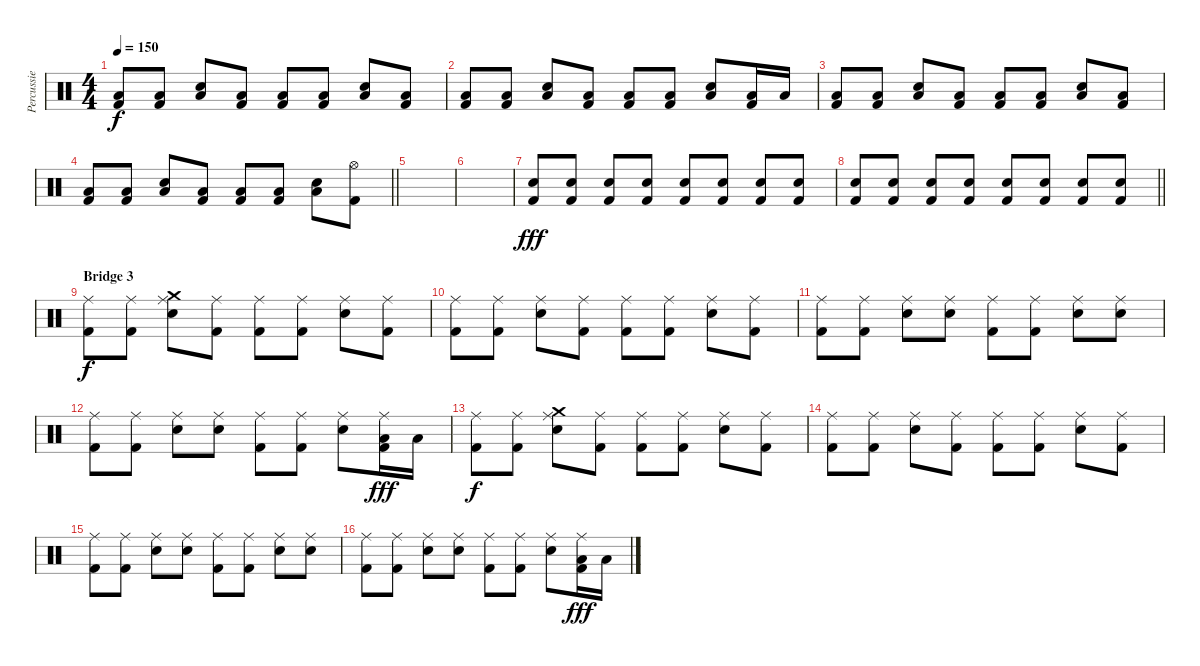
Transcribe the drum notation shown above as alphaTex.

\track ("Percussie" "Percussie") {instrument percussion}
\staff {score}
\articulation defaults
\ts (4 4)
\tempo 150
\clef neutral
\ks c
("Low Floor Tom (hit)" "Kick (hit) 2").8{dy f} ("Low Floor Tom (hit)" "Kick (hit) 2").8 ("Snare (hit) 2" "Low Floor Tom (hit)").8 ("Low Floor Tom (hit)" "Kick (hit) 2").8 ("Low Floor Tom (hit)" "Kick (hit) 2").8 ("Low Floor Tom (hit)" "Kick (hit) 2").8 ("Snare (hit) 2" "Low Floor Tom (hit)").8 ("Low Floor Tom (hit)" "Kick (hit) 2").8 |
("Low Floor Tom (hit)" "Kick (hit) 2").8 ("Low Floor Tom (hit)" "Kick (hit) 2").8 ("Snare (hit) 2" "Low Floor Tom (hit)").8 ("Low Floor Tom (hit)" "Kick (hit) 2").8 ("Low Floor Tom (hit)" "Kick (hit) 2").8 ("Low Floor Tom (hit)" "Kick (hit) 2").8 ("Snare (hit) 2" "Low Floor Tom (hit)").8 ("Low Floor Tom (hit)" "Kick (hit) 2").16 "Low Floor Tom (hit)".16 |
("Low Floor Tom (hit)" "Kick (hit) 2").8 ("Low Floor Tom (hit)" "Kick (hit) 2").8 ("Snare (hit) 2" "Low Floor Tom (hit)").8 ("Low Floor Tom (hit)" "Kick (hit) 2").8 ("Low Floor Tom (hit)" "Kick (hit) 2").8 ("Low Floor Tom (hit)" "Kick (hit) 2").8 ("Snare (hit) 2" "Low Floor Tom (hit)").8 ("Low Floor Tom (hit)" "Kick (hit) 2").8 |
\barLineRight lightlight
("Low Floor Tom (hit)" "Kick (hit) 2").8 ("Low Floor Tom (hit)" "Kick (hit) 2").8 ("Snare (hit) 2" "Low Floor Tom (hit)").8 ("Low Floor Tom (hit)" "Kick (hit) 2").8 ("Low Floor Tom (hit)" "Kick (hit) 2").8 ("Low Floor Tom (hit)" "Kick (hit) 2").8 ("Snare (hit) 2" "Low Floor Tom (hit)").8 ("Hi-Hat (open)" "Kick (hit) 2").8 |
|
|
("Snare (hit) 2" "Kick (hit) 2").8{dy fff volume 11} ("Snare (hit) 2" "Kick (hit) 2").8 ("Snare (hit) 2" "Kick (hit) 2").8 ("Snare (hit) 2" "Kick (hit) 2").8 ("Snare (hit) 2" "Kick (hit) 2").8 ("Snare (hit) 2" "Kick (hit) 2").8 ("Snare (hit) 2" "Kick (hit) 2").8 ("Snare (hit) 2" "Kick (hit) 2").8 |
\barLineRight lightlight
("Snare (hit) 2" "Kick (hit) 2").8 ("Snare (hit) 2" "Kick (hit) 2").8 ("Snare (hit) 2" "Kick (hit) 2").8 ("Snare (hit) 2" "Kick (hit) 2").8 ("Snare (hit) 2" "Kick (hit) 2").8 ("Snare (hit) 2" "Kick (hit) 2").8 ("Snare (hit) 2" "Kick (hit) 2").8 ("Snare (hit) 2" "Kick (hit) 2").8 |
\section ("" "Bridge 3")
("Ride (middle)" "Kick (hit) 2").8{dy f} ("Ride (middle)" "Kick (hit) 2").8 ("Crash medium (hit)" "Ride (middle)" "Snare (hit) 2").8 ("Ride (middle)" "Kick (hit) 2").8 ("Ride (middle)" "Kick (hit) 2").8 ("Ride (middle)" "Kick (hit) 2").8 ("Ride (middle)" "Snare (hit) 2").8 ("Ride (middle)" "Kick (hit) 2").8 |
("Ride (middle)" "Kick (hit) 2").8 ("Ride (middle)" "Kick (hit) 2").8 ("Ride (middle)" "Snare (hit) 2").8 ("Ride (middle)" "Kick (hit) 2").8 ("Ride (middle)" "Kick (hit) 2").8 ("Ride (middle)" "Kick (hit) 2").8 ("Ride (middle)" "Snare (hit) 2").8 ("Ride (middle)" "Kick (hit) 2").8 |
("Ride (middle)" "Kick (hit) 2").8 ("Ride (middle)" "Kick (hit) 2").8 ("Ride (middle)" "Snare (hit) 2").8 ("Ride (middle)" "Snare (hit) 2").8 ("Ride (middle)" "Kick (hit) 2").8 ("Ride (middle)" "Kick (hit) 2").8 ("Ride (middle)" "Snare (hit) 2").8 ("Ride (middle)" "Snare (hit) 2").8 |
("Ride (middle)" "Kick (hit) 2").8 ("Ride (middle)" "Kick (hit) 2").8 ("Ride (middle)" "Snare (hit) 2").8 ("Ride (middle)" "Snare (hit) 2").8 ("Ride (middle)" "Kick (hit) 2").8 ("Ride (middle)" "Kick (hit) 2").8 ("Ride (middle)" "Snare (hit) 2").8 ("Ride (middle)" "Low Floor Tom (hit)" "Kick (hit) 2").16{dy fff} "Low Floor Tom (hit)".16 |
("Ride (middle)" "Kick (hit) 2").8{dy f} ("Ride (middle)" "Kick (hit) 2").8 ("Crash medium (hit)" "Ride (middle)" "Snare (hit) 2").8 ("Ride (middle)" "Kick (hit) 2").8 ("Ride (middle)" "Kick (hit) 2").8 ("Ride (middle)" "Kick (hit) 2").8 ("Ride (middle)" "Snare (hit) 2").8 ("Ride (middle)" "Kick (hit) 2").8 |
("Ride (middle)" "Kick (hit) 2").8 ("Ride (middle)" "Kick (hit) 2").8 ("Ride (middle)" "Snare (hit) 2").8 ("Ride (middle)" "Kick (hit) 2").8 ("Ride (middle)" "Kick (hit) 2").8 ("Ride (middle)" "Kick (hit) 2").8 ("Ride (middle)" "Snare (hit) 2").8 ("Ride (middle)" "Kick (hit) 2").8 |
("Ride (middle)" "Kick (hit) 2").8 ("Ride (middle)" "Kick (hit) 2").8 ("Ride (middle)" "Snare (hit) 2").8 ("Ride (middle)" "Snare (hit) 2").8 ("Ride (middle)" "Kick (hit) 2").8 ("Ride (middle)" "Kick (hit) 2").8 ("Ride (middle)" "Snare (hit) 2").8 ("Ride (middle)" "Snare (hit) 2").8 |
("Ride (middle)" "Kick (hit) 2").8 ("Ride (middle)" "Kick (hit) 2").8 ("Ride (middle)" "Snare (hit) 2").8 ("Ride (middle)" "Snare (hit) 2").8 ("Ride (middle)" "Kick (hit) 2").8 ("Ride (middle)" "Kick (hit) 2").8 ("Ride (middle)" "Snare (hit) 2").8 ("Ride (middle)" "Low Floor Tom (hit)" "Kick (hit) 2").16{dy fff} "Low Floor Tom (hit)".16
